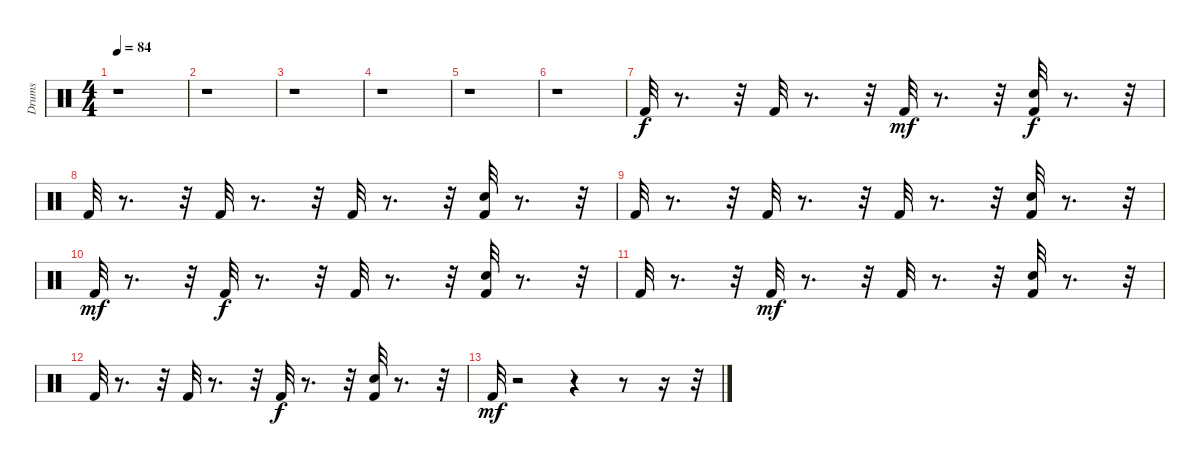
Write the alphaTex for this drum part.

\track ("Drums" "Drums") {instrument percussion}
\staff {score}
\articulation defaults
\ts (4 4)
\tempo 84
\clef neutral
\ks c
r.1{dy mf} |
r.1 |
r.1 |
r.1 |
r.1 |
r.1 |
"Kick (hit) 2".32{dy f} r.8{d} r.32 "Kick (hit) 2".32 r.8{d} r.32 "Kick (hit) 2".32{dy mf} r.8{d} r.32 ("Electric Snare (hit)" "Kick (hit) 2").32{dy f} r.8{d} r.32 |
"Kick (hit) 2".32 r.8{d} r.32 "Kick (hit) 2".32 r.8{d} r.32 "Kick (hit) 2".32 r.8{d} r.32 ("Kick (hit) 2" "Electric Snare (hit)").32 r.8{d} r.32 |
"Kick (hit) 2".32 r.8{d} r.32 "Kick (hit) 2".32 r.8{d} r.32 "Kick (hit) 2".32 r.8{d} r.32 ("Kick (hit) 2" "Electric Snare (hit)").32 r.8{d} r.32 |
"Kick (hit) 2".32{dy mf} r.8{d} r.32 "Kick (hit) 2".32{dy f} r.8{d} r.32 "Kick (hit) 2".32 r.8{d} r.32 ("Electric Snare (hit)" "Kick (hit) 2").32 r.8{d} r.32 |
"Kick (hit) 2".32 r.8{d} r.32 "Kick (hit) 2".32{dy mf} r.8{d} r.32 "Kick (hit) 2".32 r.8{d} r.32 ("Electric Snare (hit)" "Kick (hit) 2").32 r.8{d} r.32 |
"Kick (hit) 2".32 r.8{d} r.32 "Kick (hit) 2".32 r.8{d} r.32 "Kick (hit) 2".32{dy f} r.8{d} r.32 ("Kick (hit) 2" "Electric Snare (hit)").32 r.8{d} r.32 |
"Kick (hit) 2".32{dy mf} r.2 r.4 r.8 r.16 r.32
